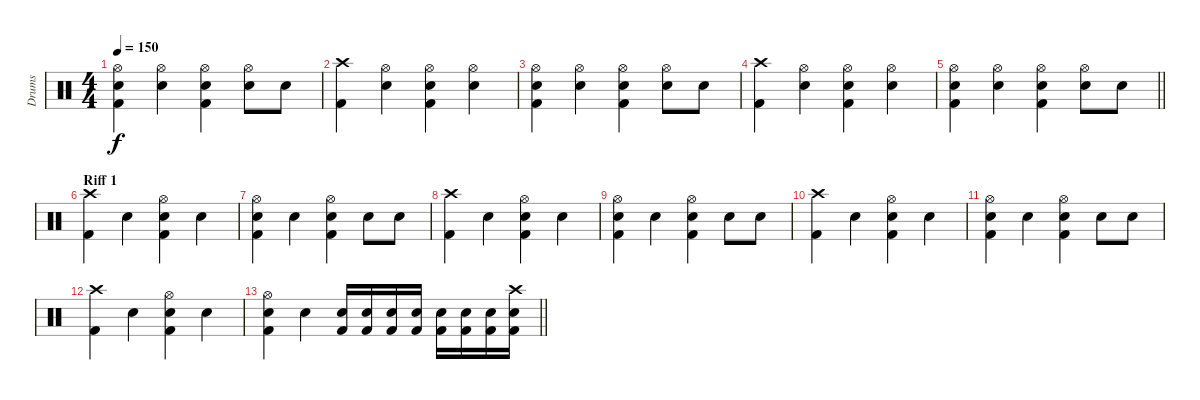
\track ("Drums" "Drums") {instrument percussion}
\staff
\articulation defaults
\ts (4 4)
\tempo 150
\clef neutral
\ks c
("Hi-Hat (open)" "Snare (hit) 2" "Kick (hit) 2").4{dy f} ("Hi-Hat (open)" "Snare (hit) 2").4 ("Hi-Hat (open)" "Snare (hit) 2" "Kick (hit) 2").4 ("Hi-Hat (open)" "Snare (hit) 2").8 "Snare (hit) 2".8 |
("Crash high (hit)" "Kick (hit) 2").4 ("Hi-Hat (open)" "Snare (hit) 2").4 ("Hi-Hat (open)" "Snare (hit) 2" "Kick (hit) 2").4 ("Hi-Hat (open)" "Snare (hit) 2").4 |
("Hi-Hat (open)" "Snare (hit) 2" "Kick (hit) 2").4 ("Hi-Hat (open)" "Snare (hit) 2").4 ("Hi-Hat (open)" "Snare (hit) 2" "Kick (hit) 2").4 ("Hi-Hat (open)" "Snare (hit) 2").8 "Snare (hit) 2".8 |
("Crash high (hit)" "Kick (hit) 2").4 ("Hi-Hat (open)" "Snare (hit) 2").4 ("Hi-Hat (open)" "Snare (hit) 2" "Kick (hit) 2").4 ("Hi-Hat (open)" "Snare (hit) 2").4 |
\barLineRight lightlight
("Hi-Hat (open)" "Snare (hit) 2" "Kick (hit) 2").4 ("Hi-Hat (open)" "Snare (hit) 2").4 ("Hi-Hat (open)" "Snare (hit) 2" "Kick (hit) 2").4 ("Hi-Hat (open)" "Snare (hit) 2").8 "Snare (hit) 2".8 |
\section ("" "Riff 1")
("Crash high (hit)" "Kick (hit) 2").4 "Snare (hit) 2".4 ("Hi-Hat (open)" "Snare (hit) 2" "Kick (hit) 2").4 "Snare (hit) 2".4 |
("Hi-Hat (open)" "Snare (hit) 2" "Kick (hit) 2").4 "Snare (hit) 2".4 ("Hi-Hat (open)" "Snare (hit) 2" "Kick (hit) 2").4 "Snare (hit) 2".8 "Snare (hit) 2".8 |
("Crash high (hit)" "Kick (hit) 2").4 "Snare (hit) 2".4 ("Hi-Hat (open)" "Snare (hit) 2" "Kick (hit) 2").4 "Snare (hit) 2".4 |
("Hi-Hat (open)" "Snare (hit) 2" "Kick (hit) 2").4 "Snare (hit) 2".4 ("Hi-Hat (open)" "Snare (hit) 2" "Kick (hit) 2").4 "Snare (hit) 2".8 "Snare (hit) 2".8 |
("Crash high (hit)" "Kick (hit) 2").4 "Snare (hit) 2".4 ("Hi-Hat (open)" "Snare (hit) 2" "Kick (hit) 2").4 "Snare (hit) 2".4 |
("Hi-Hat (open)" "Snare (hit) 2" "Kick (hit) 2").4 "Snare (hit) 2".4 ("Hi-Hat (open)" "Snare (hit) 2" "Kick (hit) 2").4 "Snare (hit) 2".8 "Snare (hit) 2".8 |
("Crash high (hit)" "Kick (hit) 2").4 "Snare (hit) 2".4 ("Hi-Hat (open)" "Snare (hit) 2" "Kick (hit) 2").4 "Snare (hit) 2".4 |
\barLineRight lightlight
("Hi-Hat (open)" "Snare (hit) 2" "Kick (hit) 2").4 "Snare (hit) 2".4 ("Snare (hit) 2" "Kick (hit) 2").16 ("Snare (hit) 2" "Kick (hit) 2").16 ("Snare (hit) 2" "Kick (hit) 2").16 ("Snare (hit) 2" "Kick (hit) 2").16 ("Snare (hit) 2" "Kick (hit) 2").16 ("Snare (hit) 2" "Kick (hit) 2").16 ("Snare (hit) 2" "Kick (hit) 2").16 ("Crash high (hit)" "Snare (hit) 2" "Kick (hit) 2").16
